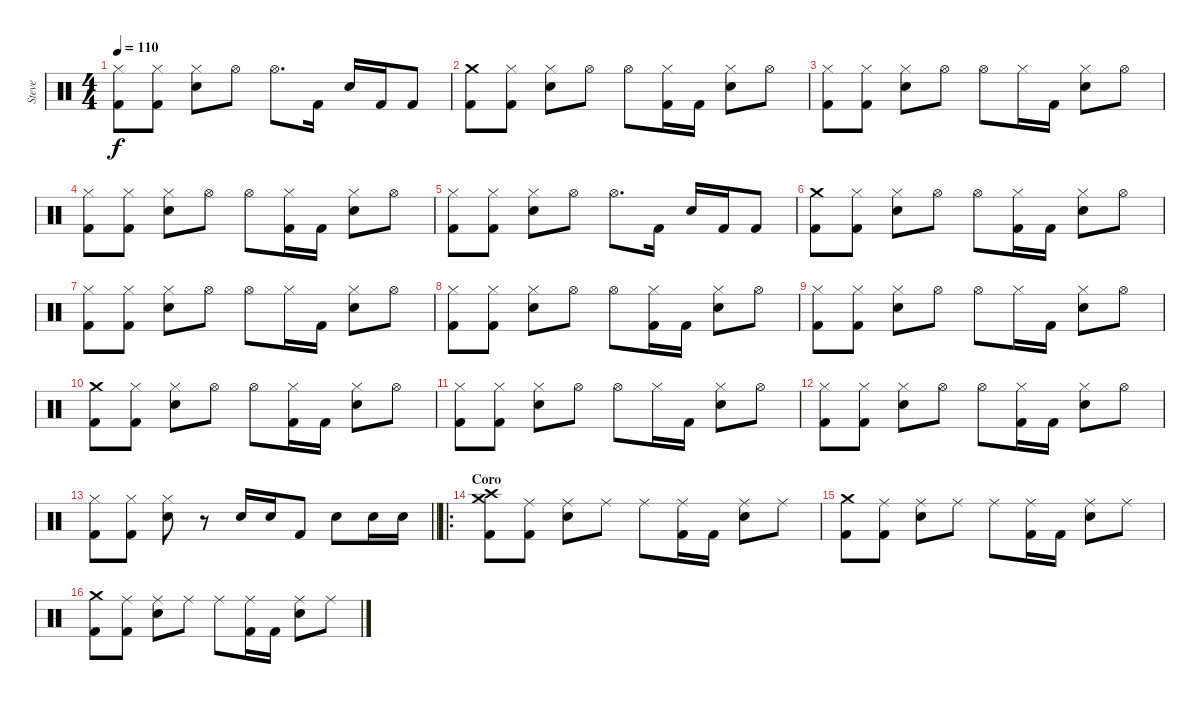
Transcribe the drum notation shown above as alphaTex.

\track ("Steve " "Steve ") {instrument percussion}
\staff {score}
\articulation defaults
\ts (4 4)
\tempo 110
\clef neutral
\ks c
("Hi-Hat (closed)" "Kick (hit) 2").8{dy f} ("Hi-Hat (closed)" "Kick (hit) 2").8 ("Hi-Hat (closed)" "Electric Snare (hit)").8 "Hi-Hat (open)".8 "Hi-Hat (open)".8{d} "Kick (hit) 2".16 "Electric Snare (hit)".16 "Kick (hit) 2".16 "Kick (hit) 2".8 |
("Crash medium (hit)" "Kick (hit) 2").8 ("Hi-Hat (closed)" "Kick (hit) 2").8 ("Hi-Hat (closed)" "Electric Snare (hit)").8 "Hi-Hat (open)".8 "Hi-Hat (open)".8 ("Hi-Hat (closed)" "Kick (hit) 2").16 "Kick (hit) 2".16 ("Hi-Hat (closed)" "Electric Snare (hit)").8 "Hi-Hat (open)".8 |
("Hi-Hat (closed)" "Kick (hit) 2").8 ("Hi-Hat (closed)" "Kick (hit) 2").8 ("Hi-Hat (closed)" "Electric Snare (hit)").8 "Hi-Hat (open)".8 "Hi-Hat (open)".8 "Hi-Hat (closed)".16 "Kick (hit) 2".16 ("Hi-Hat (closed)" "Electric Snare (hit)").8 "Hi-Hat (open)".8 |
("Hi-Hat (closed)" "Kick (hit) 2").8 ("Hi-Hat (closed)" "Kick (hit) 2").8 ("Hi-Hat (closed)" "Electric Snare (hit)").8 "Hi-Hat (open)".8 "Hi-Hat (open)".8 ("Hi-Hat (closed)" "Kick (hit) 2").16 "Kick (hit) 2".16 ("Hi-Hat (closed)" "Electric Snare (hit)").8 "Hi-Hat (open)".8 |
("Hi-Hat (closed)" "Kick (hit) 2").8 ("Hi-Hat (closed)" "Kick (hit) 2").8 ("Hi-Hat (closed)" "Electric Snare (hit)").8 "Hi-Hat (open)".8 "Hi-Hat (open)".8{d} "Kick (hit) 2".16 "Electric Snare (hit)".16 "Kick (hit) 2".16 "Kick (hit) 2".8 |
("Crash medium (hit)" "Kick (hit) 2").8 ("Hi-Hat (closed)" "Kick (hit) 2").8 ("Hi-Hat (closed)" "Electric Snare (hit)").8 "Hi-Hat (open)".8 "Hi-Hat (open)".8 ("Hi-Hat (closed)" "Kick (hit) 2").16 "Kick (hit) 2".16 ("Hi-Hat (closed)" "Electric Snare (hit)").8 "Hi-Hat (open)".8 |
("Hi-Hat (closed)" "Kick (hit) 2").8 ("Hi-Hat (closed)" "Kick (hit) 2").8 ("Hi-Hat (closed)" "Electric Snare (hit)").8 "Hi-Hat (open)".8 "Hi-Hat (open)".8 "Hi-Hat (closed)".16 "Kick (hit) 2".16 ("Hi-Hat (closed)" "Electric Snare (hit)").8 "Hi-Hat (open)".8 |
("Hi-Hat (closed)" "Kick (hit) 2").8 ("Hi-Hat (closed)" "Kick (hit) 2").8 ("Hi-Hat (closed)" "Electric Snare (hit)").8 "Hi-Hat (open)".8 "Hi-Hat (open)".8 ("Hi-Hat (closed)" "Kick (hit) 2").16 "Kick (hit) 2".16 ("Hi-Hat (closed)" "Electric Snare (hit)").8 "Hi-Hat (open)".8 |
("Hi-Hat (closed)" "Kick (hit) 2").8 ("Hi-Hat (closed)" "Kick (hit) 2").8 ("Hi-Hat (closed)" "Electric Snare (hit)").8 "Hi-Hat (open)".8 "Hi-Hat (open)".8 "Hi-Hat (closed)".16 "Kick (hit) 2".16 ("Hi-Hat (closed)" "Electric Snare (hit)").8 "Hi-Hat (open)".8 |
("Crash medium (hit)" "Kick (hit) 2").8 ("Hi-Hat (closed)" "Kick (hit) 2").8 ("Hi-Hat (closed)" "Electric Snare (hit)").8 "Hi-Hat (open)".8 "Hi-Hat (open)".8 ("Hi-Hat (closed)" "Kick (hit) 2").16 "Kick (hit) 2".16 ("Hi-Hat (closed)" "Electric Snare (hit)").8 "Hi-Hat (open)".8 |
("Hi-Hat (closed)" "Kick (hit) 2").8 ("Hi-Hat (closed)" "Kick (hit) 2").8 ("Hi-Hat (closed)" "Electric Snare (hit)").8 "Hi-Hat (open)".8 "Hi-Hat (open)".8 "Hi-Hat (closed)".16 "Kick (hit) 2".16 ("Hi-Hat (closed)" "Electric Snare (hit)").8 "Hi-Hat (open)".8 |
("Hi-Hat (closed)" "Kick (hit) 2").8 ("Hi-Hat (closed)" "Kick (hit) 2").8 ("Hi-Hat (closed)" "Electric Snare (hit)").8 "Hi-Hat (open)".8 "Hi-Hat (open)".8 ("Hi-Hat (closed)" "Kick (hit) 2").16 "Kick (hit) 2".16 ("Hi-Hat (closed)" "Electric Snare (hit)").8 "Hi-Hat (open)".8 |
\barLineRight lightlight
("Hi-Hat (closed)" "Kick (hit) 2").8 ("Hi-Hat (closed)" "Kick (hit) 2").8 ("Hi-Hat (closed)" "Electric Snare (hit)").8 r.8 "Electric Snare (hit)".16 "Electric Snare (hit)".16 "Kick (hit) 2".8 "Electric Snare (hit)".8 "Electric Snare (hit)".16 "Electric Snare (hit)".16 |
\ro
\section ("" "Coro")
("Crash medium (hit)" "Crash high (hit)" "Kick (hit) 2").8 ("Ride (middle)" "Kick (hit) 2").8 ("Ride (middle)" "Electric Snare (hit)").8 "Ride (middle)".8 "Ride (middle)".8 ("Ride (middle)" "Kick (hit) 2").16 "Kick (hit) 2".16 ("Ride (middle)" "Electric Snare (hit)").8 "Ride (middle)".8 |
("Crash medium (hit)" "Kick (hit) 2").8 ("Ride (middle)" "Kick (hit) 2").8 ("Ride (middle)" "Electric Snare (hit)").8 "Ride (middle)".8 "Ride (middle)".8 ("Ride (middle)" "Kick (hit) 2").16 "Kick (hit) 2".16 ("Ride (middle)" "Electric Snare (hit)").8 "Ride (middle)".8 |
("Crash medium (hit)" "Kick (hit) 2").8 ("Ride (middle)" "Kick (hit) 2").8 ("Ride (middle)" "Electric Snare (hit)").8 "Ride (middle)".8 "Ride (middle)".8 ("Ride (middle)" "Kick (hit) 2").16 "Kick (hit) 2".16 ("Ride (middle)" "Electric Snare (hit)").8 "Ride (middle)".8
